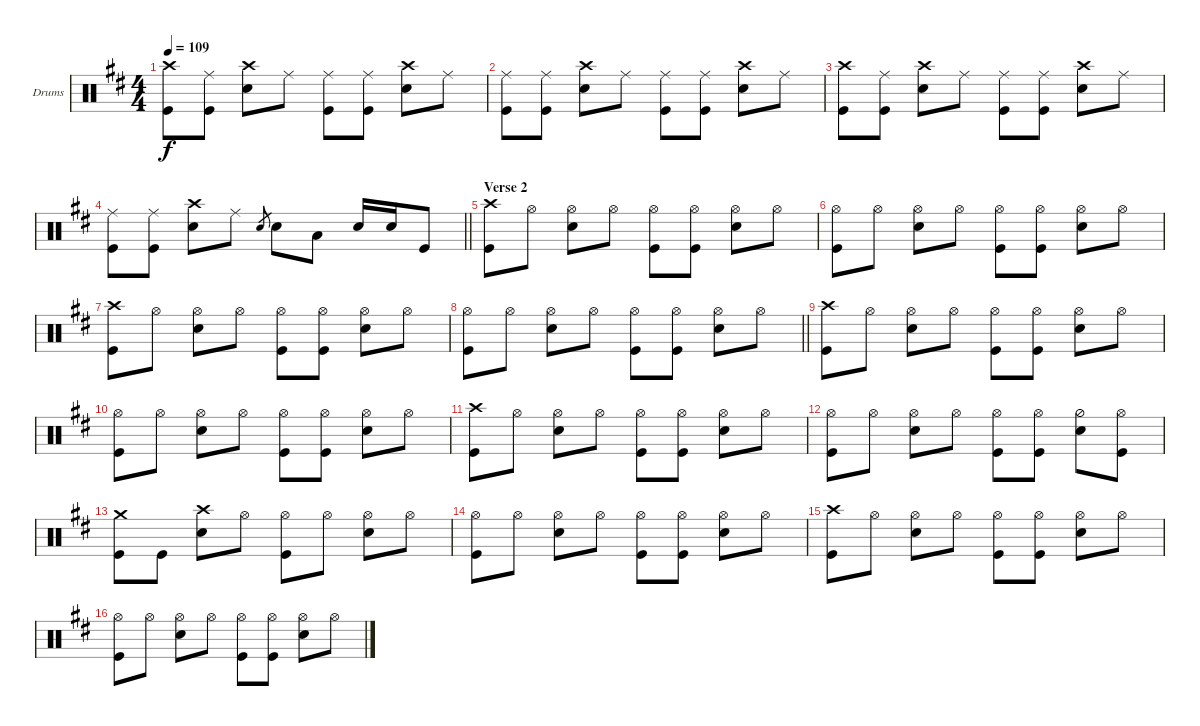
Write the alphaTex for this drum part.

\bracketExtendMode groupsimilarinstruments
\firstSystemTrackNameOrientation horizontal
\otherSystemsTrackNameOrientation horizontal
\track ("Drumkit" "Drums") {instrument percussion}
\staff {score}
\articulation defaults
\ts (4 4)
\tempo 109
\clef neutral
\ks d
("Kick (hit)" "Crash high (hit)").8{dy f} ("Kick (hit)" "Ride (middle)").8 ("Snare (hit) 2" "Crash high (hit)").8 "Ride (middle)".8 ("Kick (hit)" "Ride (middle)").8 ("Kick (hit)" "Ride (middle)").8 ("Snare (hit) 2" "Crash high (hit)").8 "Ride (middle)".8 |
("Kick (hit)" "Ride (middle)").8 ("Kick (hit)" "Ride (middle)").8 ("Snare (hit) 2" "Crash high (hit)").8 "Ride (middle)".8 ("Kick (hit)" "Ride (middle)").8 ("Kick (hit)" "Ride (middle)").8 ("Snare (hit) 2" "Crash high (hit)").8 "Ride (middle)".8 |
("Kick (hit)" "Crash high (hit)").8 ("Kick (hit)" "Ride (middle)").8 ("Snare (hit) 2" "Crash high (hit)").8 "Ride (middle)".8 ("Kick (hit)" "Ride (middle)").8 ("Kick (hit)" "Ride (middle)").8 ("Snare (hit) 2" "Crash high (hit)").8 "Ride (middle)".8 |
\barLineRight lightlight
("Kick (hit)" "Ride (middle)").8 ("Kick (hit)" "Ride (middle)").8 ("Snare (hit) 2" "Crash high (hit)").8 "Ride (middle)".8 "Snare (hit) 2".8{gr} "Snare (hit) 2".8 "Low Tom (hit)".8 "Snare (hit) 2".16 "Snare (hit) 2".16 "Kick (hit)".8 |
\section ("" "Verse 2")
("Kick (hit)" "Crash high (hit)").8 "Hi-Hat (open)".8 ("Snare (hit) 2" "Hi-Hat (open)").8 "Hi-Hat (open)".8 ("Kick (hit)" "Hi-Hat (open)").8 ("Kick (hit)" "Hi-Hat (open)").8 ("Snare (hit) 2" "Hi-Hat (open)").8 "Hi-Hat (open)".8 |
("Kick (hit)" "Hi-Hat (open)").8 "Hi-Hat (open)".8 ("Snare (hit) 2" "Hi-Hat (open)").8 "Hi-Hat (open)".8 ("Kick (hit)" "Hi-Hat (open)").8 ("Kick (hit)" "Hi-Hat (open)").8 ("Snare (hit) 2" "Hi-Hat (open)").8 "Hi-Hat (open)".8 |
("Kick (hit)" "Crash high (hit)").8 "Hi-Hat (open)".8 ("Snare (hit) 2" "Hi-Hat (open)").8 "Hi-Hat (open)".8 ("Kick (hit)" "Hi-Hat (open)").8 ("Kick (hit)" "Hi-Hat (open)").8 ("Snare (hit) 2" "Hi-Hat (open)").8 "Hi-Hat (open)".8 |
\barLineRight lightlight
("Kick (hit)" "Hi-Hat (open)").8 "Hi-Hat (open)".8 ("Snare (hit) 2" "Hi-Hat (open)").8 "Hi-Hat (open)".8 ("Kick (hit)" "Hi-Hat (open)").8 ("Kick (hit)" "Hi-Hat (open)").8 ("Snare (hit) 2" "Hi-Hat (open)").8 "Hi-Hat (open)".8 |
("Kick (hit)" "Crash high (hit)").8 "Hi-Hat (open)".8 ("Snare (hit) 2" "Hi-Hat (open)").8 "Hi-Hat (open)".8 ("Kick (hit)" "Hi-Hat (open)").8 ("Kick (hit)" "Hi-Hat (open)").8 ("Snare (hit) 2" "Hi-Hat (open)").8 "Hi-Hat (open)".8 |
("Kick (hit)" "Hi-Hat (open)").8 "Hi-Hat (open)".8 ("Snare (hit) 2" "Hi-Hat (open)").8 "Hi-Hat (open)".8 ("Kick (hit)" "Hi-Hat (open)").8 ("Kick (hit)" "Hi-Hat (open)").8 ("Snare (hit) 2" "Hi-Hat (open)").8 "Hi-Hat (open)".8 |
("Kick (hit)" "Crash high (hit)").8 "Hi-Hat (open)".8 ("Snare (hit) 2" "Hi-Hat (open)").8 "Hi-Hat (open)".8 ("Kick (hit)" "Hi-Hat (open)").8 ("Kick (hit)" "Hi-Hat (open)").8 ("Snare (hit) 2" "Hi-Hat (open)").8 "Hi-Hat (open)".8 |
("Kick (hit)" "Hi-Hat (open)").8 "Hi-Hat (open)".8 ("Snare (hit) 2" "Hi-Hat (open)").8 "Hi-Hat (open)".8 ("Kick (hit)" "Hi-Hat (open)").8 ("Kick (hit)" "Hi-Hat (open)").8 ("Snare (hit) 2" "Hi-Hat (half)").8 ("Kick (hit)" "Hi-Hat (open)").8 |
("Kick (hit)" "Crash medium (hit)").8 "Kick (hit)".8 ("Snare (hit) 2" "Crash high (hit)").8 "Hi-Hat (open)".8 ("Kick (hit)" "Hi-Hat (open)").8 "Hi-Hat (open)".8 ("Snare (hit) 2" "Hi-Hat (open)").8 "Hi-Hat (open)".8 |
("Kick (hit)" "Hi-Hat (open)").8 "Hi-Hat (open)".8 ("Snare (hit) 2" "Hi-Hat (open)").8 "Hi-Hat (open)".8 ("Kick (hit)" "Hi-Hat (open)").8 ("Kick (hit)" "Hi-Hat (open)").8 ("Snare (hit) 2" "Hi-Hat (open)").8 "Hi-Hat (open)".8 |
("Kick (hit)" "Crash high (hit)").8 "Hi-Hat (open)".8 ("Snare (hit) 2" "Hi-Hat (open)").8 "Hi-Hat (open)".8 ("Kick (hit)" "Hi-Hat (open)").8 ("Kick (hit)" "Hi-Hat (open)").8 ("Snare (hit) 2" "Hi-Hat (open)").8 "Hi-Hat (open)".8 |
("Kick (hit)" "Hi-Hat (open)").8 "Hi-Hat (open)".8 ("Snare (hit) 2" "Hi-Hat (open)").8 "Hi-Hat (open)".8 ("Kick (hit)" "Hi-Hat (open)").8 ("Kick (hit)" "Hi-Hat (open)").8 ("Snare (hit) 2" "Hi-Hat (open)").8 "Hi-Hat (open)".8
